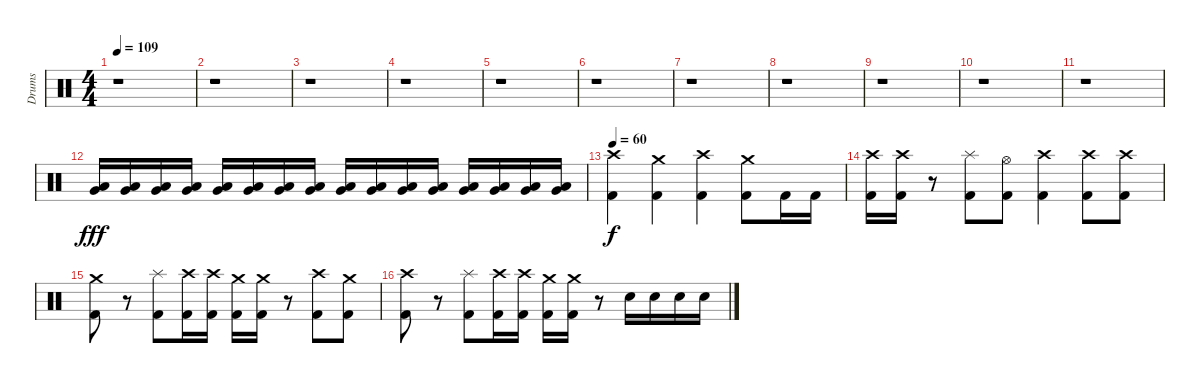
\track ("Drums" "Drums") {instrument percussion}
\staff {score}
\articulation defaults
\ts (4 4)
\tempo 109
\tempo 60
\tempo 109
\clef neutral
\ks c
r.1{dy fff} |
r.1 |
r.1 |
r.1 |
r.1 |
r.1 |
r.1 |
r.1 |
r.1 |
r.1 |
r.1 |
("Low Tom (hit)" "Very Low Tom (hit)").16 ("Low Tom (hit)" "Very Low Tom (hit)").16 ("Low Tom (hit)" "Very Low Tom (hit)").16 ("Low Tom (hit)" "Very Low Tom (hit)").16 ("Low Tom (hit)" "Very Low Tom (hit)").16 ("Low Tom (hit)" "Very Low Tom (hit)").16 ("Low Tom (hit)" "Very Low Tom (hit)").16 ("Low Tom (hit)" "Very Low Tom (hit)").16 ("Low Tom (hit)" "Very Low Tom (hit)").16 ("Low Tom (hit)" "Very Low Tom (hit)").16 ("Low Tom (hit)" "Very Low Tom (hit)").16 ("Low Tom (hit)" "Very Low Tom (hit)").16 ("Low Tom (hit)" "Very Low Tom (hit)").16 ("Low Tom (hit)" "Very Low Tom (hit)").16 ("Low Tom (hit)" "Very Low Tom (hit)").16 ("Low Tom (hit)" "Very Low Tom (hit)").16 |
\tempo 60
("Crash high (hit)" "Kick (hit) 2").4{dy f} ("Crash medium (hit)" "Kick (hit) 2").4 ("Crash high (hit)" "Kick (hit) 2").4 ("Crash medium (hit)" "Kick (hit) 2").8 "Kick (hit) 2".16 "Kick (hit) 2".16 |
("Crash high (hit)" "Kick (hit) 2").16 ("Crash high (hit)" "Kick (hit) 2").16 r.8 ("Splash (hit)" "Kick (hit) 2").8 ("Hi-Hat (open)" "Kick (hit) 2").8 ("Crash high (hit)" "Kick (hit) 2").4 ("Crash high (hit)" "Kick (hit) 2").8 ("Crash high (hit)" "Kick (hit) 2").8 |
("Crash medium (hit)" "Kick (hit) 2").8 r.8 ("Splash (hit)" "Kick (hit) 2").8 ("Crash high (hit)" "Kick (hit) 2").16 ("Crash high (hit)" "Kick (hit) 2").16 ("Crash medium (hit)" "Kick (hit) 2").16 ("Crash medium (hit)" "Kick (hit) 2").16 r.8 ("Crash high (hit)" "Kick (hit) 2").8 ("Crash medium (hit)" "Kick (hit) 2").8 |
("Crash high (hit)" "Kick (hit) 2").8 r.8 ("Splash (hit)" "Kick (hit) 2").8 ("Crash high (hit)" "Kick (hit) 2").16 ("Crash high (hit)" "Kick (hit) 2").16 ("Crash medium (hit)" "Kick (hit) 2").16 ("Crash medium (hit)" "Kick (hit) 2").16 r.8 "Snare (hit) 2".16 "Snare (hit) 2".16 "Snare (hit) 2".16 "Snare (hit) 2".16
